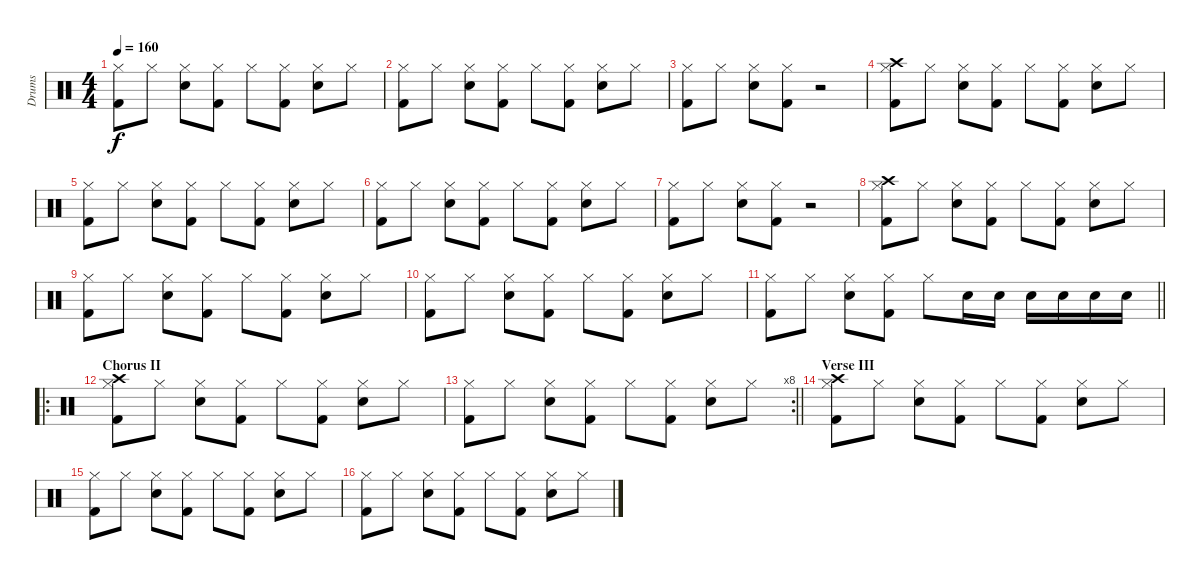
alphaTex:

\track ("Drums" "Drums") {instrument percussion}
\staff {score}
\articulation defaults
\ts (4 4)
\tempo 160
\clef neutral
\ks c
("Hi-Hat (closed)" "Kick (hit) 2").8{dy f} "Hi-Hat (closed)".8 ("Hi-Hat (closed)" "Snare (hit) 2").8 ("Hi-Hat (closed)" "Kick (hit) 2").8 "Hi-Hat (closed)".8 ("Hi-Hat (closed)" "Kick (hit) 2").8 ("Hi-Hat (closed)" "Snare (hit) 2").8 "Hi-Hat (closed)".8 |
("Hi-Hat (closed)" "Kick (hit) 2").8 "Hi-Hat (closed)".8 ("Hi-Hat (closed)" "Snare (hit) 2").8 ("Hi-Hat (closed)" "Kick (hit) 2").8 "Hi-Hat (closed)".8 ("Hi-Hat (closed)" "Kick (hit) 2").8 ("Hi-Hat (closed)" "Snare (hit) 2").8 "Hi-Hat (closed)".8 |
("Hi-Hat (closed)" "Kick (hit) 2").8 "Hi-Hat (closed)".8 ("Hi-Hat (closed)" "Snare (hit) 2").8 ("Hi-Hat (closed)" "Kick (hit) 2").8 r.2 |
("Crash high (hit)" "Hi-Hat (closed)" "Kick (hit) 2").8 "Hi-Hat (closed)".8 ("Hi-Hat (closed)" "Snare (hit) 2").8 ("Hi-Hat (closed)" "Kick (hit) 2").8 "Hi-Hat (closed)".8 ("Hi-Hat (closed)" "Kick (hit) 2").8 ("Hi-Hat (closed)" "Snare (hit) 2").8 "Hi-Hat (closed)".8 |
("Hi-Hat (closed)" "Kick (hit) 2").8 "Hi-Hat (closed)".8 ("Hi-Hat (closed)" "Snare (hit) 2").8 ("Hi-Hat (closed)" "Kick (hit) 2").8 "Hi-Hat (closed)".8 ("Hi-Hat (closed)" "Kick (hit) 2").8 ("Hi-Hat (closed)" "Snare (hit) 2").8 "Hi-Hat (closed)".8 |
("Hi-Hat (closed)" "Kick (hit) 2").8 "Hi-Hat (closed)".8 ("Hi-Hat (closed)" "Snare (hit) 2").8 ("Hi-Hat (closed)" "Kick (hit) 2").8 "Hi-Hat (closed)".8 ("Hi-Hat (closed)" "Kick (hit) 2").8 ("Hi-Hat (closed)" "Snare (hit) 2").8 "Hi-Hat (closed)".8 |
("Hi-Hat (closed)" "Kick (hit) 2").8 "Hi-Hat (closed)".8 ("Hi-Hat (closed)" "Snare (hit) 2").8 ("Hi-Hat (closed)" "Kick (hit) 2").8 r.2 |
("Crash high (hit)" "Hi-Hat (closed)" "Kick (hit) 2").8 "Hi-Hat (closed)".8 ("Hi-Hat (closed)" "Snare (hit) 2").8 ("Hi-Hat (closed)" "Kick (hit) 2").8 "Hi-Hat (closed)".8 ("Hi-Hat (closed)" "Kick (hit) 2").8 ("Hi-Hat (closed)" "Snare (hit) 2").8 "Hi-Hat (closed)".8 |
("Hi-Hat (closed)" "Kick (hit) 2").8 "Hi-Hat (closed)".8 ("Hi-Hat (closed)" "Snare (hit) 2").8 ("Hi-Hat (closed)" "Kick (hit) 2").8 "Hi-Hat (closed)".8 ("Hi-Hat (closed)" "Kick (hit) 2").8 ("Hi-Hat (closed)" "Snare (hit) 2").8 "Hi-Hat (closed)".8 |
("Hi-Hat (closed)" "Kick (hit) 2").8 "Hi-Hat (closed)".8 ("Hi-Hat (closed)" "Snare (hit) 2").8 ("Hi-Hat (closed)" "Kick (hit) 2").8 "Hi-Hat (closed)".8 ("Hi-Hat (closed)" "Kick (hit) 2").8 ("Hi-Hat (closed)" "Snare (hit) 2").8 "Hi-Hat (closed)".8 |
\barLineRight lightlight
("Hi-Hat (closed)" "Kick (hit) 2").8 "Hi-Hat (closed)".8 ("Hi-Hat (closed)" "Snare (hit) 2").8 ("Hi-Hat (closed)" "Kick (hit) 2").8 "Hi-Hat (closed)".8 "Snare (hit) 2".16 "Snare (hit) 2".16 "Snare (hit) 2".16 "Snare (hit) 2".16 "Snare (hit) 2".16 "Snare (hit) 2".16 |
\ro
\section ("" "Chorus II")
("Crash high (hit)" "Hi-Hat (closed)" "Kick (hit) 2").8 "Hi-Hat (closed)".8 ("Hi-Hat (closed)" "Snare (hit) 2").8 ("Hi-Hat (closed)" "Kick (hit) 2").8 "Hi-Hat (closed)".8 ("Hi-Hat (closed)" "Kick (hit) 2").8 ("Hi-Hat (closed)" "Snare (hit) 2").8 "Hi-Hat (closed)".8 |
\rc 8
\barLineRight lightlight
("Hi-Hat (closed)" "Kick (hit) 2").8 "Hi-Hat (closed)".8 ("Hi-Hat (closed)" "Snare (hit) 2").8 ("Hi-Hat (closed)" "Kick (hit) 2").8 "Hi-Hat (closed)".8 ("Hi-Hat (closed)" "Kick (hit) 2").8 ("Hi-Hat (closed)" "Snare (hit) 2").8 "Hi-Hat (closed)".8 |
\section ("" "Verse III")
("Crash high (hit)" "Hi-Hat (closed)" "Kick (hit) 2").8 "Hi-Hat (closed)".8 ("Hi-Hat (closed)" "Snare (hit) 2").8 ("Hi-Hat (closed)" "Kick (hit) 2").8 "Hi-Hat (closed)".8 ("Hi-Hat (closed)" "Kick (hit) 2").8 ("Hi-Hat (closed)" "Snare (hit) 2").8 "Hi-Hat (closed)".8 |
("Hi-Hat (closed)" "Kick (hit) 2").8 "Hi-Hat (closed)".8 ("Hi-Hat (closed)" "Snare (hit) 2").8 ("Hi-Hat (closed)" "Kick (hit) 2").8 "Hi-Hat (closed)".8 ("Hi-Hat (closed)" "Kick (hit) 2").8 ("Hi-Hat (closed)" "Snare (hit) 2").8 "Hi-Hat (closed)".8 |
("Hi-Hat (closed)" "Kick (hit) 2").8 "Hi-Hat (closed)".8 ("Hi-Hat (closed)" "Snare (hit) 2").8 ("Hi-Hat (closed)" "Kick (hit) 2").8 "Hi-Hat (closed)".8 ("Hi-Hat (closed)" "Kick (hit) 2").8 ("Hi-Hat (closed)" "Snare (hit) 2").8 "Hi-Hat (closed)".8
